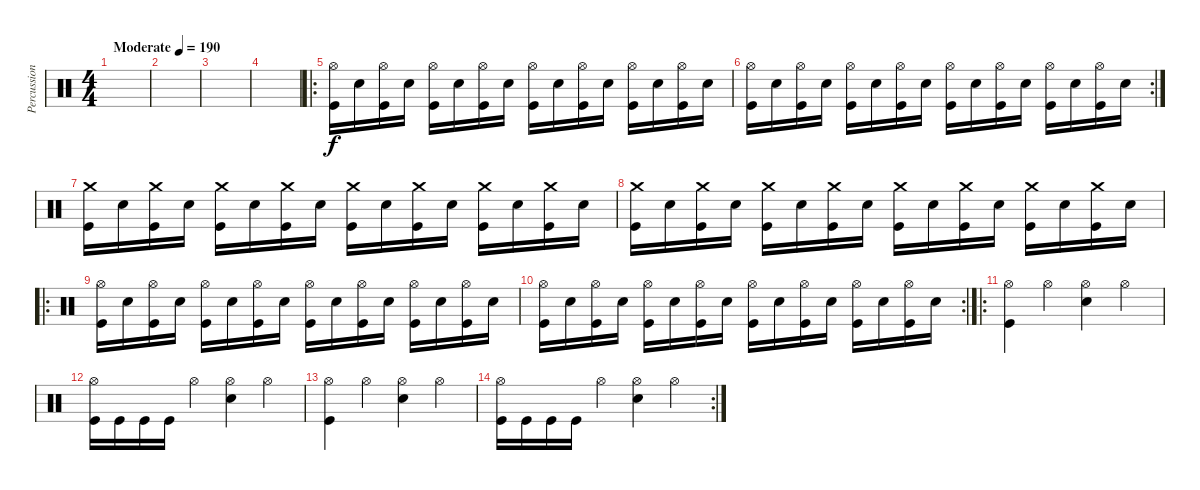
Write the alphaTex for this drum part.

\track ("Percussion" "Percussion") {instrument percussion}
\staff {score}
\articulation defaults
\ts (4 4)
\tempo (190 "Moderate")
\clef neutral
\ks c
|
|
|
|
\ro
("Hi-Hat (open)" "Kick (hit)").16 "Snare (hit) 2".16 ("Hi-Hat (open)" "Kick (hit)").16 "Snare (hit) 2".16 ("Hi-Hat (open)" "Kick (hit)").16 "Snare (hit) 2".16 ("Hi-Hat (open)" "Kick (hit)").16 "Snare (hit) 2".16 ("Hi-Hat (open)" "Kick (hit)").16 "Snare (hit) 2".16 ("Hi-Hat (open)" "Kick (hit)").16 "Snare (hit) 2".16 ("Hi-Hat (open)" "Kick (hit)").16 "Snare (hit) 2".16 ("Hi-Hat (open)" "Kick (hit)").16 "Snare (hit) 2".16 |
\rc 2
("Hi-Hat (open)" "Kick (hit)").16 "Snare (hit) 2".16 ("Hi-Hat (open)" "Kick (hit)").16 "Snare (hit) 2".16 ("Hi-Hat (open)" "Kick (hit)").16 "Snare (hit) 2".16 ("Hi-Hat (open)" "Kick (hit)").16 "Snare (hit) 2".16 ("Hi-Hat (open)" "Kick (hit)").16 "Snare (hit) 2".16 ("Hi-Hat (open)" "Kick (hit)").16 "Snare (hit) 2".16 ("Hi-Hat (open)" "Kick (hit)").16 "Snare (hit) 2".16 ("Hi-Hat (open)" "Kick (hit)").16 "Snare (hit) 2".16 |
("Crash medium (hit)" "Kick (hit)").16 "Snare (hit) 2".16 ("Crash medium (hit)" "Kick (hit)").16 "Snare (hit) 2".16 ("Crash medium (hit)" "Kick (hit)").16 "Snare (hit) 2".16 ("Crash medium (hit)" "Kick (hit)").16 "Snare (hit) 2".16 ("Crash medium (hit)" "Kick (hit)").16 "Snare (hit) 2".16 ("Crash medium (hit)" "Kick (hit)").16 "Snare (hit) 2".16 ("Crash medium (hit)" "Kick (hit)").16 "Snare (hit) 2".16 ("Crash medium (hit)" "Kick (hit)").16 "Snare (hit) 2".16 |
("Crash medium (hit)" "Kick (hit)").16 "Snare (hit) 2".16 ("Crash medium (hit)" "Kick (hit)").16 "Snare (hit) 2".16 ("Crash medium (hit)" "Kick (hit)").16 "Snare (hit) 2".16 ("Crash medium (hit)" "Kick (hit)").16 "Snare (hit) 2".16 ("Crash medium (hit)" "Kick (hit)").16 "Snare (hit) 2".16 ("Crash medium (hit)" "Kick (hit)").16 "Snare (hit) 2".16 ("Crash medium (hit)" "Kick (hit)").16 "Snare (hit) 2".16 ("Crash medium (hit)" "Kick (hit)").16 "Snare (hit) 2".16 |
\ro
("Hi-Hat (open)" "Kick (hit)").16 "Snare (hit) 2".16 ("Hi-Hat (open)" "Kick (hit)").16 "Snare (hit) 2".16 ("Hi-Hat (open)" "Kick (hit)").16 "Snare (hit) 2".16 ("Hi-Hat (open)" "Kick (hit)").16 "Snare (hit) 2".16 ("Hi-Hat (open)" "Kick (hit)").16 "Snare (hit) 2".16 ("Hi-Hat (open)" "Kick (hit)").16 "Snare (hit) 2".16 ("Hi-Hat (open)" "Kick (hit)").16 "Snare (hit) 2".16 ("Hi-Hat (open)" "Kick (hit)").16 "Snare (hit) 2".16 |
\rc 2
("Hi-Hat (open)" "Kick (hit)").16 "Snare (hit) 2".16 ("Hi-Hat (open)" "Kick (hit)").16 "Snare (hit) 2".16 ("Hi-Hat (open)" "Kick (hit)").16 "Snare (hit) 2".16 ("Hi-Hat (open)" "Kick (hit)").16 "Snare (hit) 2".16 ("Hi-Hat (open)" "Kick (hit)").16 "Snare (hit) 2".16 ("Hi-Hat (open)" "Kick (hit)").16 "Snare (hit) 2".16 ("Hi-Hat (open)" "Kick (hit)").16 "Snare (hit) 2".16 ("Hi-Hat (open)" "Kick (hit)").16 "Snare (hit) 2".16 |
\ro
("Hi-Hat (open)" "Kick (hit)").4 "Hi-Hat (open)".4 ("Hi-Hat (open)" "Snare (hit) 2").4 "Hi-Hat (open)".4 |
("Hi-Hat (open)" "Kick (hit)").16 "Kick (hit)".16 "Kick (hit)".16 "Kick (hit)".16 "Hi-Hat (open)".4 ("Hi-Hat (open)" "Snare (hit) 2").4 "Hi-Hat (open)".4 |
("Hi-Hat (open)" "Kick (hit)").4 "Hi-Hat (open)".4 ("Hi-Hat (open)" "Snare (hit) 2").4 "Hi-Hat (open)".4 |
\rc 2
("Hi-Hat (open)" "Kick (hit)").16 "Kick (hit)".16 "Kick (hit)".16 "Kick (hit)".16 "Hi-Hat (open)".4 ("Hi-Hat (open)" "Snare (hit) 2").4 "Hi-Hat (open)".4
